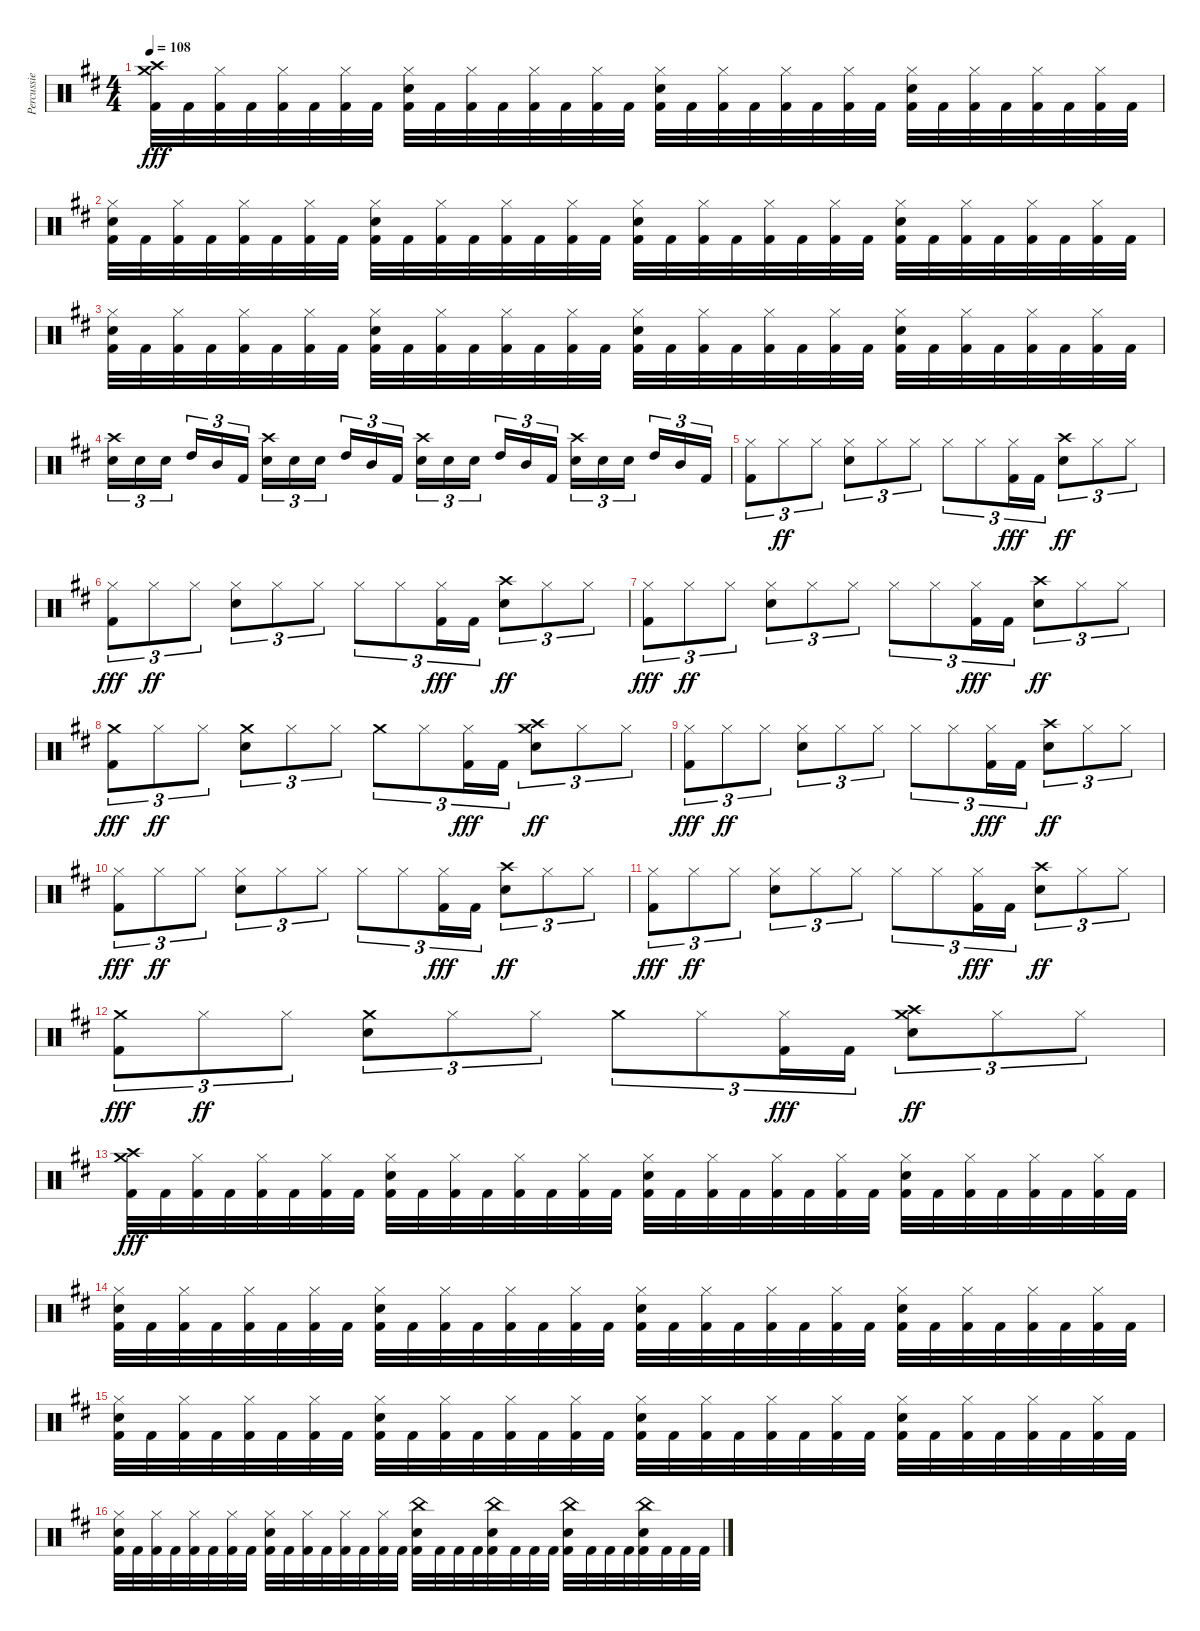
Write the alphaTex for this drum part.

\track ("Percussie" "Percussie") {instrument percussion}
\staff {score}
\articulation defaults
\ts (4 4)
\tempo 108
\clef neutral
\ks d
("Crash high (hit)" "Crash medium (hit)" "Kick (hit) 2").32{dy fff} "Kick (hit) 2".32 ("Hi-Hat (closed)" "Kick (hit) 2").32 "Kick (hit) 2".32 ("Hi-Hat (closed)" "Kick (hit) 2").32 "Kick (hit) 2".32 ("Hi-Hat (closed)" "Kick (hit) 2").32 "Kick (hit) 2".32 ("Hi-Hat (closed)" "Snare (hit) 2" "Kick (hit) 2").32 "Kick (hit) 2".32 ("Hi-Hat (closed)" "Kick (hit) 2").32 "Kick (hit) 2".32 ("Hi-Hat (closed)" "Kick (hit) 2").32 "Kick (hit) 2".32 ("Hi-Hat (closed)" "Kick (hit) 2").32 "Kick (hit) 2".32 ("Hi-Hat (closed)" "Snare (hit) 2" "Kick (hit) 2").32 "Kick (hit) 2".32 ("Hi-Hat (closed)" "Kick (hit) 2").32 "Kick (hit) 2".32 ("Hi-Hat (closed)" "Kick (hit) 2").32 "Kick (hit) 2".32 ("Hi-Hat (closed)" "Kick (hit) 2").32 "Kick (hit) 2".32 ("Hi-Hat (closed)" "Snare (hit) 2" "Kick (hit) 2").32 "Kick (hit) 2".32 ("Hi-Hat (closed)" "Kick (hit) 2").32 "Kick (hit) 2".32 ("Hi-Hat (closed)" "Kick (hit) 2").32 "Kick (hit) 2".32 ("Hi-Hat (closed)" "Kick (hit) 2").32 "Kick (hit) 2".32 |
("Hi-Hat (closed)" "Snare (hit) 2" "Kick (hit) 2").32 "Kick (hit) 2".32 ("Hi-Hat (closed)" "Kick (hit) 2").32 "Kick (hit) 2".32 ("Hi-Hat (closed)" "Kick (hit) 2").32 "Kick (hit) 2".32 ("Hi-Hat (closed)" "Kick (hit) 2").32 "Kick (hit) 2".32 ("Hi-Hat (closed)" "Snare (hit) 2" "Kick (hit) 2").32 "Kick (hit) 2".32 ("Hi-Hat (closed)" "Kick (hit) 2").32 "Kick (hit) 2".32 ("Hi-Hat (closed)" "Kick (hit) 2").32 "Kick (hit) 2".32 ("Hi-Hat (closed)" "Kick (hit) 2").32 "Kick (hit) 2".32 ("Hi-Hat (closed)" "Snare (hit) 2" "Kick (hit) 2").32 "Kick (hit) 2".32 ("Hi-Hat (closed)" "Kick (hit) 2").32 "Kick (hit) 2".32 ("Hi-Hat (closed)" "Kick (hit) 2").32 "Kick (hit) 2".32 ("Hi-Hat (closed)" "Kick (hit) 2").32 "Kick (hit) 2".32 ("Hi-Hat (closed)" "Snare (hit) 2" "Kick (hit) 2").32 "Kick (hit) 2".32 ("Hi-Hat (closed)" "Kick (hit) 2").32 "Kick (hit) 2".32 ("Hi-Hat (closed)" "Kick (hit) 2").32 "Kick (hit) 2".32 ("Hi-Hat (closed)" "Kick (hit) 2").32 "Kick (hit) 2".32 |
("Hi-Hat (closed)" "Snare (hit) 2" "Kick (hit) 2").32 "Kick (hit) 2".32 ("Hi-Hat (closed)" "Kick (hit) 2").32 "Kick (hit) 2".32 ("Hi-Hat (closed)" "Kick (hit) 2").32 "Kick (hit) 2".32 ("Hi-Hat (closed)" "Kick (hit) 2").32 "Kick (hit) 2".32 ("Hi-Hat (closed)" "Snare (hit) 2" "Kick (hit) 2").32 "Kick (hit) 2".32 ("Hi-Hat (closed)" "Kick (hit) 2").32 "Kick (hit) 2".32 ("Hi-Hat (closed)" "Kick (hit) 2").32 "Kick (hit) 2".32 ("Hi-Hat (closed)" "Kick (hit) 2").32 "Kick (hit) 2".32 ("Hi-Hat (closed)" "Snare (hit) 2" "Kick (hit) 2").32 "Kick (hit) 2".32 ("Hi-Hat (closed)" "Kick (hit) 2").32 "Kick (hit) 2".32 ("Hi-Hat (closed)" "Kick (hit) 2").32 "Kick (hit) 2".32 ("Hi-Hat (closed)" "Kick (hit) 2").32 "Kick (hit) 2".32 ("Hi-Hat (closed)" "Snare (hit) 2" "Kick (hit) 2").32 "Kick (hit) 2".32 ("Hi-Hat (closed)" "Kick (hit) 2").32 "Kick (hit) 2".32 ("Hi-Hat (closed)" "Kick (hit) 2").32 "Kick (hit) 2".32 ("Hi-Hat (closed)" "Kick (hit) 2").32 "Kick (hit) 2".32 |
("Crash high (hit)" "Snare (hit) 2").16{tu (3 2)} "Snare (hit) 2".16{tu (3 2)} "Snare (hit) 2".16{tu (3 2) beam splitsecondary} "High Tom (hit)".16{tu (3 2)} "Mid Tom (hit)".16{tu (3 2)} "Kick (hit) 2".16{tu (3 2)} ("Crash high (hit)" "Snare (hit) 2").16{tu (3 2)} "Snare (hit) 2".16{tu (3 2)} "Snare (hit) 2".16{tu (3 2) beam splitsecondary} "High Tom (hit)".16{tu (3 2)} "Mid Tom (hit)".16{tu (3 2)} "Kick (hit) 2".16{tu (3 2)} ("Crash high (hit)" "Snare (hit) 2").16{tu (3 2)} "Snare (hit) 2".16{tu (3 2)} "Snare (hit) 2".16{tu (3 2) beam splitsecondary} "High Tom (hit)".16{tu (3 2)} "Mid Tom (hit)".16{tu (3 2)} "Kick (hit) 2".16{tu (3 2)} ("Crash high (hit)" "Snare (hit) 2").16{tu (3 2)} "Snare (hit) 2".16{tu (3 2)} "Snare (hit) 2".16{tu (3 2) beam splitsecondary} "High Tom (hit)".16{tu (3 2)} "Mid Tom (hit)".16{tu (3 2)} "Kick (hit) 2".16{tu (3 2)} |
("Hi-Hat (closed)" "Kick (hit) 2").8{tu (3 2)} "Hi-Hat (closed)".8{tu (3 2) dy ff} "Hi-Hat (closed)".8{tu (3 2)} ("Hi-Hat (closed)" "Snare (hit) 2").8{tu (3 2)} "Hi-Hat (closed)".8{tu (3 2)} "Hi-Hat (closed)".8{tu (3 2)} "Hi-Hat (closed)".8{tu (3 2)} "Hi-Hat (closed)".8{tu (3 2)} ("Hi-Hat (closed)" "Kick (hit) 2").16{tu (3 2) dy fff} "Kick (hit) 2".16{tu (3 2)} ("Crash high (hit)" "Snare (hit) 2").8{tu (3 2) dy ff} "Hi-Hat (closed)".8{tu (3 2)} "Hi-Hat (closed)".8{tu (3 2)} |
("Hi-Hat (closed)" "Kick (hit) 2").8{tu (3 2) dy fff} "Hi-Hat (closed)".8{tu (3 2) dy ff} "Hi-Hat (closed)".8{tu (3 2)} ("Hi-Hat (closed)" "Snare (hit) 2").8{tu (3 2)} "Hi-Hat (closed)".8{tu (3 2)} "Hi-Hat (closed)".8{tu (3 2)} "Hi-Hat (closed)".8{tu (3 2)} "Hi-Hat (closed)".8{tu (3 2)} ("Hi-Hat (closed)" "Kick (hit) 2").16{tu (3 2) dy fff} "Kick (hit) 2".16{tu (3 2)} ("Crash high (hit)" "Snare (hit) 2").8{tu (3 2) dy ff} "Hi-Hat (closed)".8{tu (3 2)} "Hi-Hat (closed)".8{tu (3 2)} |
("Hi-Hat (closed)" "Kick (hit) 2").8{tu (3 2) dy fff} "Hi-Hat (closed)".8{tu (3 2) dy ff} "Hi-Hat (closed)".8{tu (3 2)} ("Hi-Hat (closed)" "Snare (hit) 2").8{tu (3 2)} "Hi-Hat (closed)".8{tu (3 2)} "Hi-Hat (closed)".8{tu (3 2)} "Hi-Hat (closed)".8{tu (3 2)} "Hi-Hat (closed)".8{tu (3 2)} ("Hi-Hat (closed)" "Kick (hit) 2").16{tu (3 2) dy fff} "Kick (hit) 2".16{tu (3 2)} ("Crash high (hit)" "Snare (hit) 2").8{tu (3 2) dy ff} "Hi-Hat (closed)".8{tu (3 2)} "Hi-Hat (closed)".8{tu (3 2)} |
("Crash medium (hit)" "Kick (hit) 2").8{tu (3 2) dy fff} "Hi-Hat (closed)".8{tu (3 2) dy ff} "Hi-Hat (closed)".8{tu (3 2)} ("Crash medium (hit)" "Snare (hit) 2").8{tu (3 2)} "Hi-Hat (closed)".8{tu (3 2)} "Hi-Hat (closed)".8{tu (3 2)} "Crash medium (hit)".8{tu (3 2)} "Hi-Hat (closed)".8{tu (3 2)} ("Hi-Hat (closed)" "Kick (hit) 2").16{tu (3 2) dy fff} "Kick (hit) 2".16{tu (3 2)} ("Crash medium (hit)" "Crash high (hit)" "Snare (hit) 2").8{tu (3 2) dy ff} "Hi-Hat (closed)".8{tu (3 2)} "Hi-Hat (closed)".8{tu (3 2)} |
("Hi-Hat (closed)" "Kick (hit) 2").8{tu (3 2) dy fff} "Hi-Hat (closed)".8{tu (3 2) dy ff} "Hi-Hat (closed)".8{tu (3 2)} ("Hi-Hat (closed)" "Snare (hit) 2").8{tu (3 2)} "Hi-Hat (closed)".8{tu (3 2)} "Hi-Hat (closed)".8{tu (3 2)} "Hi-Hat (closed)".8{tu (3 2)} "Hi-Hat (closed)".8{tu (3 2)} ("Hi-Hat (closed)" "Kick (hit) 2").16{tu (3 2) dy fff} "Kick (hit) 2".16{tu (3 2)} ("Crash high (hit)" "Snare (hit) 2").8{tu (3 2) dy ff} "Hi-Hat (closed)".8{tu (3 2)} "Hi-Hat (closed)".8{tu (3 2)} |
("Hi-Hat (closed)" "Kick (hit) 2").8{tu (3 2) dy fff} "Hi-Hat (closed)".8{tu (3 2) dy ff} "Hi-Hat (closed)".8{tu (3 2)} ("Hi-Hat (closed)" "Snare (hit) 2").8{tu (3 2)} "Hi-Hat (closed)".8{tu (3 2)} "Hi-Hat (closed)".8{tu (3 2)} "Hi-Hat (closed)".8{tu (3 2)} "Hi-Hat (closed)".8{tu (3 2)} ("Hi-Hat (closed)" "Kick (hit) 2").16{tu (3 2) dy fff} "Kick (hit) 2".16{tu (3 2)} ("Crash high (hit)" "Snare (hit) 2").8{tu (3 2) dy ff} "Hi-Hat (closed)".8{tu (3 2)} "Hi-Hat (closed)".8{tu (3 2)} |
("Hi-Hat (closed)" "Kick (hit) 2").8{tu (3 2) dy fff} "Hi-Hat (closed)".8{tu (3 2) dy ff} "Hi-Hat (closed)".8{tu (3 2)} ("Hi-Hat (closed)" "Snare (hit) 2").8{tu (3 2)} "Hi-Hat (closed)".8{tu (3 2)} "Hi-Hat (closed)".8{tu (3 2)} "Hi-Hat (closed)".8{tu (3 2)} "Hi-Hat (closed)".8{tu (3 2)} ("Hi-Hat (closed)" "Kick (hit) 2").16{tu (3 2) dy fff} "Kick (hit) 2".16{tu (3 2)} ("Crash high (hit)" "Snare (hit) 2").8{tu (3 2) dy ff} "Hi-Hat (closed)".8{tu (3 2)} "Hi-Hat (closed)".8{tu (3 2)} |
("Crash medium (hit)" "Kick (hit) 2").8{tu (3 2) dy fff} "Hi-Hat (closed)".8{tu (3 2) dy ff} "Hi-Hat (closed)".8{tu (3 2)} ("Crash medium (hit)" "Snare (hit) 2").8{tu (3 2)} "Hi-Hat (closed)".8{tu (3 2)} "Hi-Hat (closed)".8{tu (3 2)} "Crash medium (hit)".8{tu (3 2)} "Hi-Hat (closed)".8{tu (3 2)} ("Hi-Hat (closed)" "Kick (hit) 2").16{tu (3 2) dy fff} "Kick (hit) 2".16{tu (3 2)} ("Crash medium (hit)" "Crash high (hit)" "Snare (hit) 2").8{tu (3 2) dy ff} "Hi-Hat (closed)".8{tu (3 2)} "Hi-Hat (closed)".8{tu (3 2)} |
("Crash high (hit)" "Crash medium (hit)" "Kick (hit) 2").32{dy fff} "Kick (hit) 2".32 ("Hi-Hat (closed)" "Kick (hit) 2").32 "Kick (hit) 2".32 ("Hi-Hat (closed)" "Kick (hit) 2").32 "Kick (hit) 2".32 ("Hi-Hat (closed)" "Kick (hit) 2").32 "Kick (hit) 2".32 ("Hi-Hat (closed)" "Snare (hit) 2" "Kick (hit) 2").32 "Kick (hit) 2".32 ("Hi-Hat (closed)" "Kick (hit) 2").32 "Kick (hit) 2".32 ("Hi-Hat (closed)" "Kick (hit) 2").32 "Kick (hit) 2".32 ("Hi-Hat (closed)" "Kick (hit) 2").32 "Kick (hit) 2".32 ("Hi-Hat (closed)" "Snare (hit) 2" "Kick (hit) 2").32 "Kick (hit) 2".32 ("Hi-Hat (closed)" "Kick (hit) 2").32 "Kick (hit) 2".32 ("Hi-Hat (closed)" "Kick (hit) 2").32 "Kick (hit) 2".32 ("Hi-Hat (closed)" "Kick (hit) 2").32 "Kick (hit) 2".32 ("Hi-Hat (closed)" "Snare (hit) 2" "Kick (hit) 2").32 "Kick (hit) 2".32 ("Hi-Hat (closed)" "Kick (hit) 2").32 "Kick (hit) 2".32 ("Hi-Hat (closed)" "Kick (hit) 2").32 "Kick (hit) 2".32 ("Hi-Hat (closed)" "Kick (hit) 2").32 "Kick (hit) 2".32 |
("Hi-Hat (closed)" "Snare (hit) 2" "Kick (hit) 2").32 "Kick (hit) 2".32 ("Hi-Hat (closed)" "Kick (hit) 2").32 "Kick (hit) 2".32 ("Hi-Hat (closed)" "Kick (hit) 2").32 "Kick (hit) 2".32 ("Hi-Hat (closed)" "Kick (hit) 2").32 "Kick (hit) 2".32 ("Hi-Hat (closed)" "Snare (hit) 2" "Kick (hit) 2").32 "Kick (hit) 2".32 ("Hi-Hat (closed)" "Kick (hit) 2").32 "Kick (hit) 2".32 ("Hi-Hat (closed)" "Kick (hit) 2").32 "Kick (hit) 2".32 ("Hi-Hat (closed)" "Kick (hit) 2").32 "Kick (hit) 2".32 ("Hi-Hat (closed)" "Snare (hit) 2" "Kick (hit) 2").32 "Kick (hit) 2".32 ("Hi-Hat (closed)" "Kick (hit) 2").32 "Kick (hit) 2".32 ("Hi-Hat (closed)" "Kick (hit) 2").32 "Kick (hit) 2".32 ("Hi-Hat (closed)" "Kick (hit) 2").32 "Kick (hit) 2".32 ("Hi-Hat (closed)" "Snare (hit) 2" "Kick (hit) 2").32 "Kick (hit) 2".32 ("Hi-Hat (closed)" "Kick (hit) 2").32 "Kick (hit) 2".32 ("Hi-Hat (closed)" "Kick (hit) 2").32 "Kick (hit) 2".32 ("Hi-Hat (closed)" "Kick (hit) 2").32 "Kick (hit) 2".32 |
("Hi-Hat (closed)" "Snare (hit) 2" "Kick (hit) 2").32 "Kick (hit) 2".32 ("Hi-Hat (closed)" "Kick (hit) 2").32 "Kick (hit) 2".32 ("Hi-Hat (closed)" "Kick (hit) 2").32 "Kick (hit) 2".32 ("Hi-Hat (closed)" "Kick (hit) 2").32 "Kick (hit) 2".32 ("Hi-Hat (closed)" "Snare (hit) 2" "Kick (hit) 2").32 "Kick (hit) 2".32 ("Hi-Hat (closed)" "Kick (hit) 2").32 "Kick (hit) 2".32 ("Hi-Hat (closed)" "Kick (hit) 2").32 "Kick (hit) 2".32 ("Hi-Hat (closed)" "Kick (hit) 2").32 "Kick (hit) 2".32 ("Hi-Hat (closed)" "Snare (hit) 2" "Kick (hit) 2").32 "Kick (hit) 2".32 ("Hi-Hat (closed)" "Kick (hit) 2").32 "Kick (hit) 2".32 ("Hi-Hat (closed)" "Kick (hit) 2").32 "Kick (hit) 2".32 ("Hi-Hat (closed)" "Kick (hit) 2").32 "Kick (hit) 2".32 ("Hi-Hat (closed)" "Snare (hit) 2" "Kick (hit) 2").32 "Kick (hit) 2".32 ("Hi-Hat (closed)" "Kick (hit) 2").32 "Kick (hit) 2".32 ("Hi-Hat (closed)" "Kick (hit) 2").32 "Kick (hit) 2".32 ("Hi-Hat (closed)" "Kick (hit) 2").32 "Kick (hit) 2".32 |
("Hi-Hat (closed)" "Snare (hit) 2" "Kick (hit) 2").32 "Kick (hit) 2".32 ("Hi-Hat (closed)" "Kick (hit) 2").32 "Kick (hit) 2".32 ("Hi-Hat (closed)" "Kick (hit) 2").32 "Kick (hit) 2".32 ("Hi-Hat (closed)" "Kick (hit) 2").32 "Kick (hit) 2".32 ("Hi-Hat (closed)" "Snare (hit) 2" "Kick (hit) 2").32 "Kick (hit) 2".32 ("Hi-Hat (closed)" "Kick (hit) 2").32 "Kick (hit) 2".32 ("Hi-Hat (closed)" "Kick (hit) 2").32 "Kick (hit) 2".32 ("Hi-Hat (closed)" "Kick (hit) 2").32 "Kick (hit) 2".32 ("China (hit)" "Snare (hit) 2" "Kick (hit) 2").32 "Kick (hit) 2".32 "Kick (hit) 2".32 "Kick (hit) 2".32 ("China (hit)" "Snare (hit) 2" "Kick (hit) 2").32 "Kick (hit) 2".32 "Kick (hit) 2".32 "Kick (hit) 2".32 ("China (hit)" "Snare (hit) 2" "Kick (hit) 2").32 "Kick (hit) 2".32 "Kick (hit) 2".32 "Kick (hit) 2".32 ("China (hit)" "Snare (hit) 2" "Kick (hit) 2").32 "Kick (hit) 2".32 "Kick (hit) 2".32 "Kick (hit) 2".32
